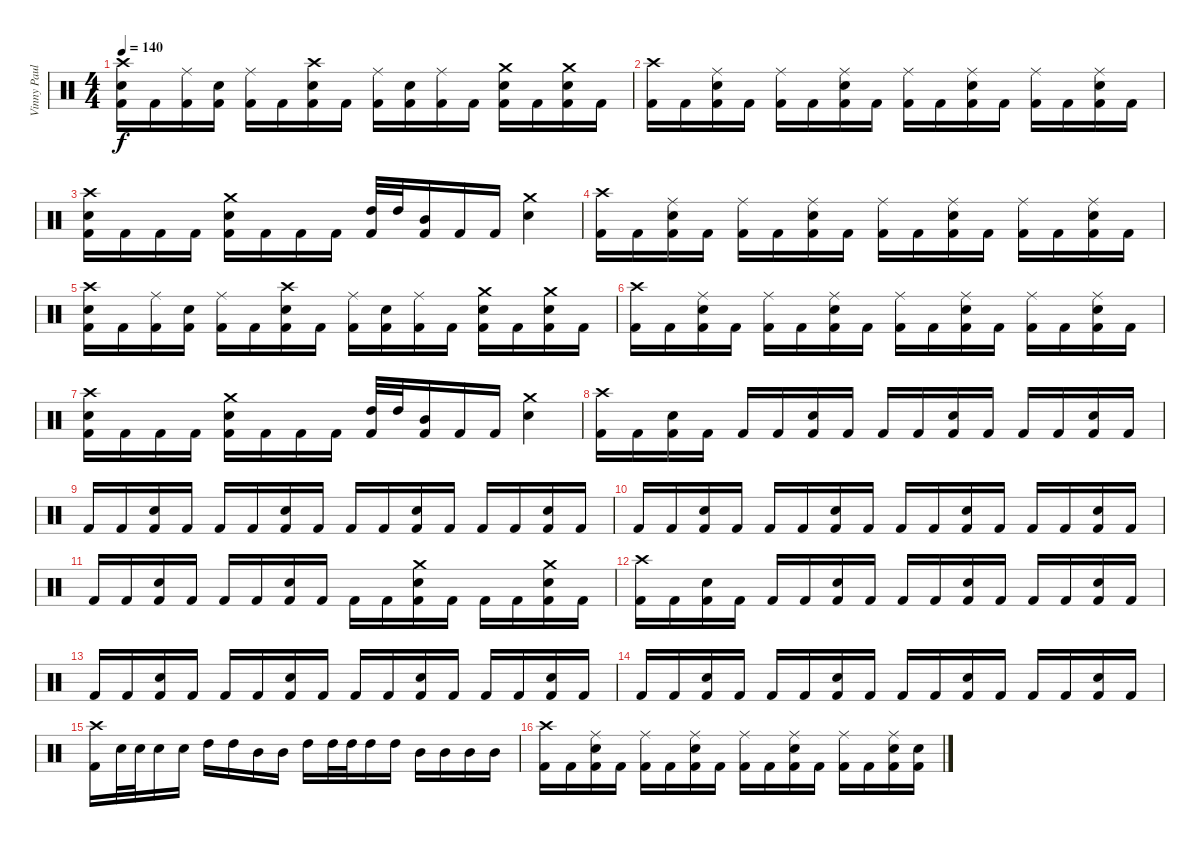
\track ("Vinny Paul" "Vinny Paul") {instrument percussion}
\staff {score}
\articulation defaults
\ts (4 4)
\tempo 140
\clef neutral
\ks c
("Crash high (hit)" "Snare (hit) 2" "Kick (hit) 2").16{dy f} "Kick (hit) 2".16 ("Ride (middle)" "Kick (hit) 2").16 ("Snare (hit) 2" "Kick (hit) 2").16 ("Ride (middle)" "Kick (hit) 2").16 "Kick (hit) 2".16 ("Crash high (hit)" "Snare (hit) 2" "Kick (hit) 2").16 "Kick (hit) 2".16 ("Ride (middle)" "Kick (hit) 2").16 ("Snare (hit) 2" "Kick (hit) 2").16 ("Ride (middle)" "Kick (hit) 2").16 "Kick (hit) 2".16 ("Crash medium (hit)" "Snare (hit) 2" "Kick (hit) 2").16 "Kick (hit) 2".16 ("Crash medium (hit)" "Snare (hit) 2" "Kick (hit) 2").16 "Kick (hit) 2".16 |
("Crash high (hit)" "Kick (hit) 2").16 "Kick (hit) 2".16 ("Ride (middle)" "Snare (hit) 2" "Kick (hit) 2").16 "Kick (hit) 2".16 ("Ride (middle)" "Kick (hit) 2").16 "Kick (hit) 2".16 ("Ride (middle)" "Snare (hit) 2" "Kick (hit) 2").16 "Kick (hit) 2".16 ("Ride (middle)" "Kick (hit) 2").16 "Kick (hit) 2".16 ("Ride (middle)" "Snare (hit) 2" "Kick (hit) 2").16 "Kick (hit) 2".16 ("Ride (middle)" "Kick (hit) 2").16 "Kick (hit) 2".16 ("Ride (middle)" "Snare (hit) 2" "Kick (hit) 2").16 "Kick (hit) 2".16 |
("Crash high (hit)" "Snare (hit) 2" "Kick (hit) 2").16 "Kick (hit) 2".16 "Kick (hit) 2".16 "Kick (hit) 2".16 ("Crash medium (hit)" "Snare (hit) 2" "Kick (hit) 2").16 "Kick (hit) 2".16 "Kick (hit) 2".16 "Kick (hit) 2".16 ("High Tom (hit)" "Kick (hit) 2").32 "High Tom (hit)".32 ("Mid Tom (hit)" "Kick (hit) 2").16 "Kick (hit) 2".16 "Kick (hit) 2".16 ("Crash medium (hit)" "Snare (hit) 2").4 |
("Crash high (hit)" "Kick (hit) 2").16 "Kick (hit) 2".16 ("Ride (middle)" "Snare (hit) 2" "Kick (hit) 2").16 "Kick (hit) 2".16 ("Ride (middle)" "Kick (hit) 2").16 "Kick (hit) 2".16 ("Ride (middle)" "Snare (hit) 2" "Kick (hit) 2").16 "Kick (hit) 2".16 ("Ride (middle)" "Kick (hit) 2").16 "Kick (hit) 2".16 ("Ride (middle)" "Snare (hit) 2" "Kick (hit) 2").16 "Kick (hit) 2".16 ("Ride (middle)" "Kick (hit) 2").16 "Kick (hit) 2".16 ("Ride (middle)" "Snare (hit) 2" "Kick (hit) 2").16 "Kick (hit) 2".16 |
("Crash high (hit)" "Snare (hit) 2" "Kick (hit) 2").16 "Kick (hit) 2".16 ("Ride (middle)" "Kick (hit) 2").16 ("Snare (hit) 2" "Kick (hit) 2").16 ("Ride (middle)" "Kick (hit) 2").16 "Kick (hit) 2".16 ("Crash high (hit)" "Snare (hit) 2" "Kick (hit) 2").16 "Kick (hit) 2".16 ("Ride (middle)" "Kick (hit) 2").16 ("Snare (hit) 2" "Kick (hit) 2").16 ("Ride (middle)" "Kick (hit) 2").16 "Kick (hit) 2".16 ("Crash medium (hit)" "Snare (hit) 2" "Kick (hit) 2").16 "Kick (hit) 2".16 ("Crash medium (hit)" "Snare (hit) 2" "Kick (hit) 2").16 "Kick (hit) 2".16 |
("Crash high (hit)" "Kick (hit) 2").16 "Kick (hit) 2".16 ("Ride (middle)" "Snare (hit) 2" "Kick (hit) 2").16 "Kick (hit) 2".16 ("Ride (middle)" "Kick (hit) 2").16 "Kick (hit) 2".16 ("Ride (middle)" "Snare (hit) 2" "Kick (hit) 2").16 "Kick (hit) 2".16 ("Ride (middle)" "Kick (hit) 2").16 "Kick (hit) 2".16 ("Ride (middle)" "Snare (hit) 2" "Kick (hit) 2").16 "Kick (hit) 2".16 ("Ride (middle)" "Kick (hit) 2").16 "Kick (hit) 2".16 ("Ride (middle)" "Snare (hit) 2" "Kick (hit) 2").16 "Kick (hit) 2".16 |
("Crash high (hit)" "Snare (hit) 2" "Kick (hit) 2").16 "Kick (hit) 2".16 "Kick (hit) 2".16 "Kick (hit) 2".16 ("Crash medium (hit)" "Snare (hit) 2" "Kick (hit) 2").16 "Kick (hit) 2".16 "Kick (hit) 2".16 "Kick (hit) 2".16 ("High Tom (hit)" "Kick (hit) 2").32 "High Tom (hit)".32 ("Mid Tom (hit)" "Kick (hit) 2").16 "Kick (hit) 2".16 "Kick (hit) 2".16 ("Crash medium (hit)" "Snare (hit) 2").4 |
("Crash high (hit)" "Kick (hit) 2").16 "Kick (hit) 2".16 ("Snare (hit) 2" "Kick (hit) 2").16 "Kick (hit) 2".16 "Kick (hit) 2".16 "Kick (hit) 2".16 ("Snare (hit) 2" "Kick (hit) 2").16 "Kick (hit) 2".16 "Kick (hit) 2".16 "Kick (hit) 2".16 ("Snare (hit) 2" "Kick (hit) 2").16 "Kick (hit) 2".16 "Kick (hit) 2".16 "Kick (hit) 2".16 ("Snare (hit) 2" "Kick (hit) 2").16 "Kick (hit) 2".16 |
"Kick (hit) 2".16 "Kick (hit) 2".16 ("Snare (hit) 2" "Kick (hit) 2").16 "Kick (hit) 2".16 "Kick (hit) 2".16 "Kick (hit) 2".16 ("Snare (hit) 2" "Kick (hit) 2").16 "Kick (hit) 2".16 "Kick (hit) 2".16 "Kick (hit) 2".16 ("Snare (hit) 2" "Kick (hit) 2").16 "Kick (hit) 2".16 "Kick (hit) 2".16 "Kick (hit) 2".16 ("Snare (hit) 2" "Kick (hit) 2").16 "Kick (hit) 2".16 |
"Kick (hit) 2".16 "Kick (hit) 2".16 ("Snare (hit) 2" "Kick (hit) 2").16 "Kick (hit) 2".16 "Kick (hit) 2".16 "Kick (hit) 2".16 ("Snare (hit) 2" "Kick (hit) 2").16 "Kick (hit) 2".16 "Kick (hit) 2".16 "Kick (hit) 2".16 ("Snare (hit) 2" "Kick (hit) 2").16 "Kick (hit) 2".16 "Kick (hit) 2".16 "Kick (hit) 2".16 ("Snare (hit) 2" "Kick (hit) 2").16 "Kick (hit) 2".16 |
"Kick (hit) 2".16 "Kick (hit) 2".16 ("Snare (hit) 2" "Kick (hit) 2").16 "Kick (hit) 2".16 "Kick (hit) 2".16 "Kick (hit) 2".16 ("Snare (hit) 2" "Kick (hit) 2").16 "Kick (hit) 2".16 "Kick (hit) 2".16 "Kick (hit) 2".16 ("Crash medium (hit)" "Snare (hit) 2" "Kick (hit) 2").16 "Kick (hit) 2".16 "Kick (hit) 2".16 "Kick (hit) 2".16 ("Crash medium (hit)" "Snare (hit) 2" "Kick (hit) 2").16 "Kick (hit) 2".16 |
("Crash high (hit)" "Kick (hit) 2").16 "Kick (hit) 2".16 ("Snare (hit) 2" "Kick (hit) 2").16 "Kick (hit) 2".16 "Kick (hit) 2".16 "Kick (hit) 2".16 ("Snare (hit) 2" "Kick (hit) 2").16 "Kick (hit) 2".16 "Kick (hit) 2".16 "Kick (hit) 2".16 ("Snare (hit) 2" "Kick (hit) 2").16 "Kick (hit) 2".16 "Kick (hit) 2".16 "Kick (hit) 2".16 ("Snare (hit) 2" "Kick (hit) 2").16 "Kick (hit) 2".16 |
"Kick (hit) 2".16 "Kick (hit) 2".16 ("Snare (hit) 2" "Kick (hit) 2").16 "Kick (hit) 2".16 "Kick (hit) 2".16 "Kick (hit) 2".16 ("Snare (hit) 2" "Kick (hit) 2").16 "Kick (hit) 2".16 "Kick (hit) 2".16 "Kick (hit) 2".16 ("Snare (hit) 2" "Kick (hit) 2").16 "Kick (hit) 2".16 "Kick (hit) 2".16 "Kick (hit) 2".16 ("Snare (hit) 2" "Kick (hit) 2").16 "Kick (hit) 2".16 |
"Kick (hit) 2".16 "Kick (hit) 2".16 ("Snare (hit) 2" "Kick (hit) 2").16 "Kick (hit) 2".16 "Kick (hit) 2".16 "Kick (hit) 2".16 ("Snare (hit) 2" "Kick (hit) 2").16 "Kick (hit) 2".16 "Kick (hit) 2".16 "Kick (hit) 2".16 ("Snare (hit) 2" "Kick (hit) 2").16 "Kick (hit) 2".16 "Kick (hit) 2".16 "Kick (hit) 2".16 ("Snare (hit) 2" "Kick (hit) 2").16 "Kick (hit) 2".16 |
("Crash high (hit)" "Kick (hit) 2").16 "Snare (hit) 2".32 "Snare (hit) 2".32 "Snare (hit) 2".16 "Snare (hit) 2".16 "High Tom (hit)".16 "High Tom (hit)".16 "Mid Tom (hit)".16 "Mid Tom (hit)".16 "High Tom (hit)".16 "High Tom (hit)".32 "High Tom (hit)".32 "High Tom (hit)".16 "High Tom (hit)".16 "Mid Tom (hit)".16 "Mid Tom (hit)".16 "Mid Tom (hit)".16 "Mid Tom (hit)".16 |
("Crash high (hit)" "Kick (hit) 2").16 "Kick (hit) 2".16 ("Ride (middle)" "Snare (hit) 2" "Kick (hit) 2").16 "Kick (hit) 2".16 ("Ride (middle)" "Kick (hit) 2").16 "Kick (hit) 2".16 ("Ride (middle)" "Snare (hit) 2" "Kick (hit) 2").16 "Kick (hit) 2".16 ("Ride (middle)" "Kick (hit) 2").16 "Kick (hit) 2".16 ("Ride (middle)" "Snare (hit) 2" "Kick (hit) 2").16 "Kick (hit) 2".16 ("Ride (middle)" "Kick (hit) 2").16 "Kick (hit) 2".16 ("Ride (middle)" "Snare (hit) 2" "Kick (hit) 2").16 ("Snare (hit) 2" "Kick (hit) 2").16
